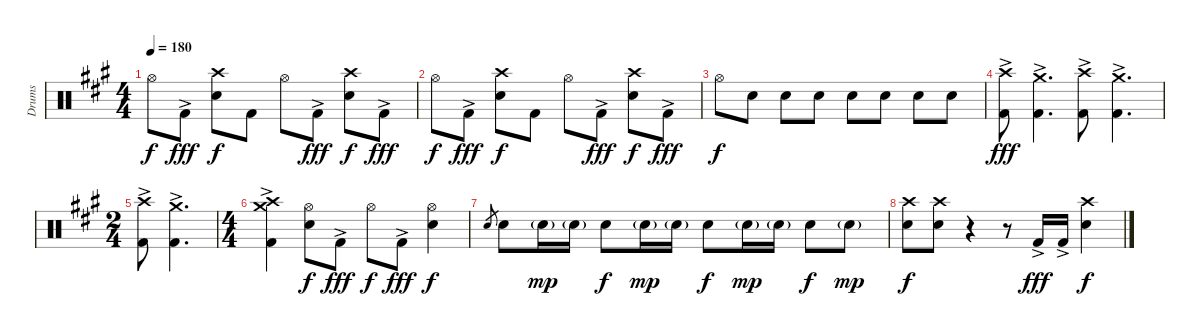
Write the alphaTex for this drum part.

\track ("Drums" "Drums") {instrument percussion}
\staff {score}
\articulation defaults
\ts (4 4)
\tempo 180
\clef neutral
\ks f#minor "Hi-Hat (open)".8{dy f} "Kick (hit) 2"{ac}.8{dy fff}
("Crash high (hit)" "Snare (hit) 2").8{dy f} "Kick (hit) 2".8 "Hi-Hat (open)".8 "Kick (hit) 2"{ac}.8{dy fff} ("Crash high (hit)" "Snare (hit) 2").8{dy f} "Kick (hit) 2"{ac}.8{dy fff} |
"Hi-Hat (open)".8{dy f} "Kick (hit) 2"{ac}.8{dy fff} ("Crash high (hit)" "Snare (hit) 2").8{dy f} "Kick (hit) 2".8 "Hi-Hat (open)".8 "Kick (hit) 2"{ac}.8{dy fff} ("Crash high (hit)" "Snare (hit) 2").8{dy f} "Kick (hit) 2"{ac}.8{dy fff} |
"Hi-Hat (open)".8{dy f} "Snare (hit) 2".8 "Snare (hit) 2".8 "Snare (hit) 2".8 "Snare (hit) 2".8 "Snare (hit) 2".8 "Snare (hit) 2".8 "Snare (hit) 2".8 |
("Crash high (hit)" "Kick (hit) 2"{ac}).8{dy fff} ("Crash medium (hit)" "Kick (hit) 2"{ac}).4{d} ("Crash high (hit)" "Kick (hit) 2"{ac}).8 ("Crash medium (hit)" "Kick (hit) 2"{ac}).4{d} |
\ts (2 4)
("Crash high (hit)" "Kick (hit) 2"{ac}).8 ("Crash medium (hit)" "Kick (hit) 2"{ac}).4{d} |
\ts (4 4)
("Crash high (hit)" "Crash medium (hit)" "Kick (hit) 2"{ac}).4 ("Hi-Hat (open)" "Snare (hit) 2").8{dy f} "Kick (hit) 2"{ac}.8{dy fff} "Hi-Hat (open)".8{dy f} "Kick (hit) 2"{ac}.8{dy fff} ("Hi-Hat (open)" "Snare (hit) 2").4{dy f} |
"Snare (hit) 2".8{gr} "Snare (hit) 2".8 "Snare (hit) 2"{g}.16{dy mp} "Snare (hit) 2"{g}.16 "Snare (hit) 2".8{dy f} "Snare (hit) 2"{g}.16{dy mp} "Snare (hit) 2"{g}.16 "Snare (hit) 2".8{dy f} "Snare (hit) 2"{g}.16{dy mp} "Snare (hit) 2"{g}.16 "Snare (hit) 2".8{dy f} "Snare (hit) 2"{g}.8{dy mp} |
("Crash high (hit)" "Snare (hit) 2").8{dy f} ("Crash high (hit)" "Snare (hit) 2").8 r.4 r.8 "Kick (hit) 2"{ac}.16{dy fff} "Kick (hit) 2"{ac}.16 ("Crash high (hit)" "Snare (hit) 2").4{dy f}
